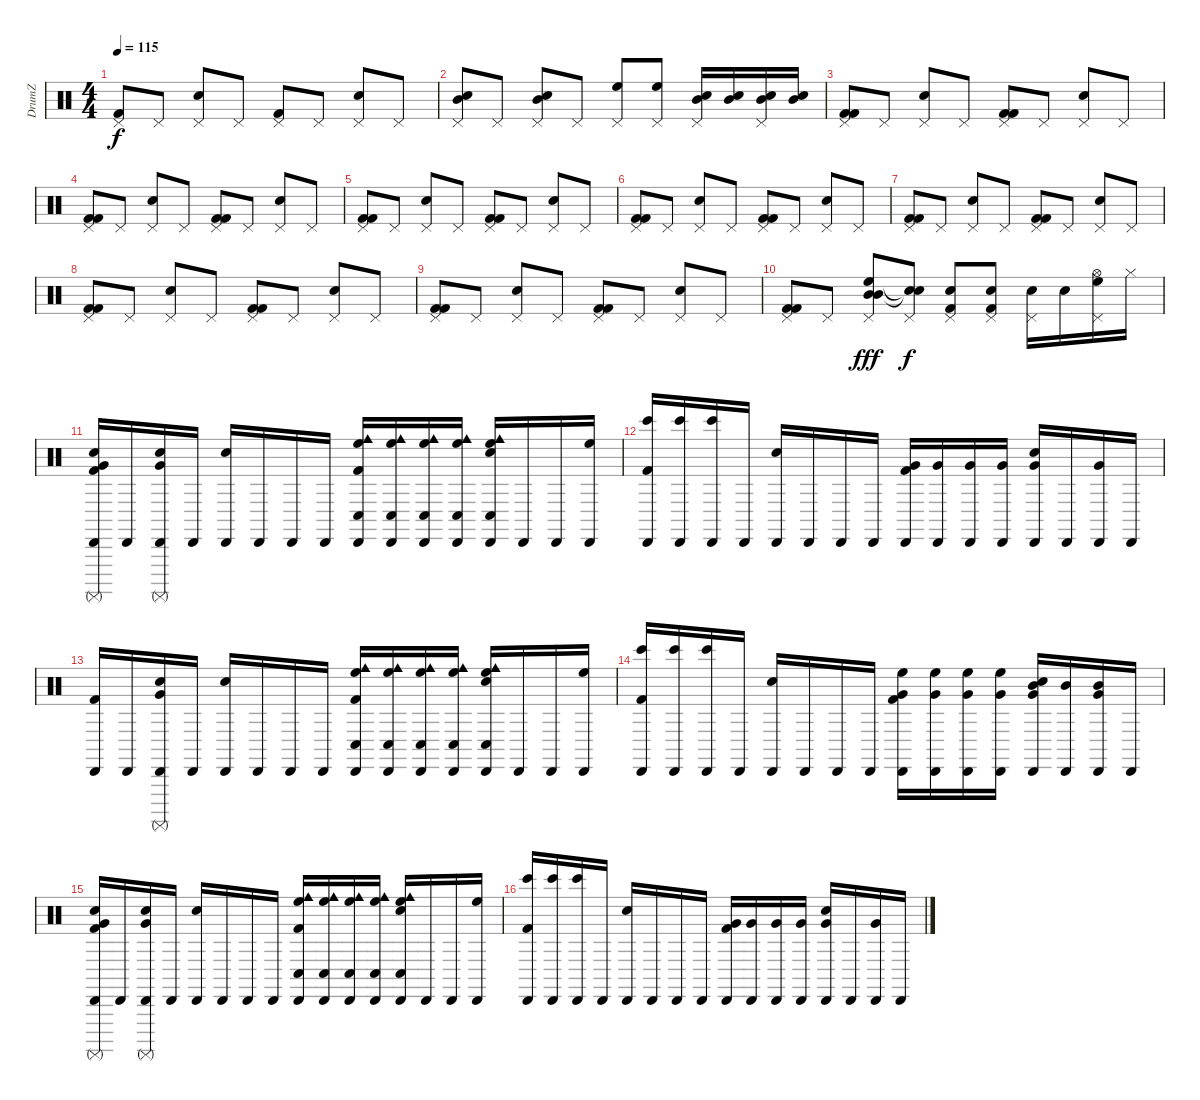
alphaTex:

\track ("DrumZ" "DrumZ") {instrument percussion}
\staff {score}
\articulation defaults
\ts (4 4)
\tempo 115
\clef neutral
\ks c
("Pedal Hi-Hat (hit)" "Kick (hit) 2").8{dy f} "Pedal Hi-Hat (hit)".8 ("Pedal Hi-Hat (hit)" "Electric Snare (hit)").8 "Pedal Hi-Hat (hit)".8 ("Pedal Hi-Hat (hit)" "Kick (hit) 2").8 "Pedal Hi-Hat (hit)".8 ("Pedal Hi-Hat (hit)" "Electric Snare (hit)").8 "Pedal Hi-Hat (hit)".8 |
("Pedal Hi-Hat (hit)" "Electric Snare (hit)" "Mid Tom (hit)").8 "Pedal Hi-Hat (hit)".8 ("Pedal Hi-Hat (hit)" "Electric Snare (hit)" "Mid Tom (hit)").8 "Pedal Hi-Hat (hit)".8 ("Pedal Hi-Hat (hit)" "High Floor Tom (hit)").8 ("Pedal Hi-Hat (hit)" "High Floor Tom (hit)").8 ("Pedal Hi-Hat (hit)" "Electric Snare (hit)" "Mid Tom (hit)").16 ("Electric Snare (hit)" "Mid Tom (hit)").16 ("Pedal Hi-Hat (hit)" "Electric Snare (hit)" "Mid Tom (hit)").16 ("Electric Snare (hit)" "Mid Tom (hit)").16 |
("Pedal Hi-Hat (hit)" "Kick (hit) 2" "Kick (hit) 2").8 "Pedal Hi-Hat (hit)".8 ("Pedal Hi-Hat (hit)" "Electric Snare (hit)").8 "Pedal Hi-Hat (hit)".8 ("Pedal Hi-Hat (hit)" "Kick (hit) 2" "Kick (hit) 2").8 "Pedal Hi-Hat (hit)".8 ("Pedal Hi-Hat (hit)" "Electric Snare (hit)").8 "Pedal Hi-Hat (hit)".8 |
("Pedal Hi-Hat (hit)" "Kick (hit) 2" "Kick (hit) 2").8 "Pedal Hi-Hat (hit)".8 ("Pedal Hi-Hat (hit)" "Electric Snare (hit)").8 "Pedal Hi-Hat (hit)".8 ("Pedal Hi-Hat (hit)" "Kick (hit) 2" "Kick (hit) 2").8 "Pedal Hi-Hat (hit)".8 ("Pedal Hi-Hat (hit)" "Electric Snare (hit)").8 "Pedal Hi-Hat (hit)".8 |
("Pedal Hi-Hat (hit)" "Kick (hit) 2" "Kick (hit) 2").8 "Pedal Hi-Hat (hit)".8 ("Pedal Hi-Hat (hit)" "Electric Snare (hit)").8 "Pedal Hi-Hat (hit)".8 ("Pedal Hi-Hat (hit)" "Kick (hit) 2" "Kick (hit) 2").8 "Pedal Hi-Hat (hit)".8 ("Pedal Hi-Hat (hit)" "Electric Snare (hit)").8 "Pedal Hi-Hat (hit)".8 |
("Pedal Hi-Hat (hit)" "Kick (hit) 2" "Kick (hit) 2").8 "Pedal Hi-Hat (hit)".8 ("Pedal Hi-Hat (hit)" "Electric Snare (hit)").8 "Pedal Hi-Hat (hit)".8 ("Pedal Hi-Hat (hit)" "Kick (hit) 2" "Kick (hit) 2").8 "Pedal Hi-Hat (hit)".8 ("Pedal Hi-Hat (hit)" "Electric Snare (hit)").8 "Pedal Hi-Hat (hit)".8 |
("Pedal Hi-Hat (hit)" "Kick (hit) 2" "Kick (hit) 2").8 "Pedal Hi-Hat (hit)".8 ("Pedal Hi-Hat (hit)" "Electric Snare (hit)").8 "Pedal Hi-Hat (hit)".8 ("Pedal Hi-Hat (hit)" "Kick (hit) 2" "Kick (hit) 2").8 "Pedal Hi-Hat (hit)".8 ("Pedal Hi-Hat (hit)" "Electric Snare (hit)").8 "Pedal Hi-Hat (hit)".8 |
("Pedal Hi-Hat (hit)" "Kick (hit) 2" "Kick (hit) 2").8 "Pedal Hi-Hat (hit)".8 ("Pedal Hi-Hat (hit)" "Electric Snare (hit)").8 "Pedal Hi-Hat (hit)".8 ("Pedal Hi-Hat (hit)" "Kick (hit) 2" "Kick (hit) 2").8 "Pedal Hi-Hat (hit)".8 ("Pedal Hi-Hat (hit)" "Electric Snare (hit)").8 "Pedal Hi-Hat (hit)".8 |
("Pedal Hi-Hat (hit)" "Kick (hit) 2" "Kick (hit) 2").8 "Pedal Hi-Hat (hit)".8 ("Pedal Hi-Hat (hit)" "Electric Snare (hit)").8 "Pedal Hi-Hat (hit)".8 ("Pedal Hi-Hat (hit)" "Kick (hit) 2" "Kick (hit) 2").8 "Pedal Hi-Hat (hit)".8 ("Pedal Hi-Hat (hit)" "Electric Snare (hit)").8 "Pedal Hi-Hat (hit)".8 |
("Pedal Hi-Hat (hit)" "Kick (hit) 2" "Kick (hit) 2").8 "Pedal Hi-Hat (hit)".8 ("Pedal Hi-Hat (hit)" "High Floor Tom (hit)" "Mid Tom (hit)" "Mid Tom (hit)").8{dy fff} ("Pedal Hi-Hat (hit)" "Snare (hit)"{t} "Snare (hit)"{t}).8{dy f} ("Pedal Hi-Hat (hit)" "Snare (hit) 2" "Kick (hit) 2").8 ("Pedal Hi-Hat (hit)" "Snare (hit) 2" "Kick (hit) 2").8 ("Pedal Hi-Hat (hit)" "Electric Snare (hit)").16 "Electric Snare (hit)".16 ("Pedal Hi-Hat (hit)" "Hi-Hat (open)" "High Floor Tom (hit)").16 "Hi-Hat (closed)".16 |
("Cabasa (hit)" "Very Low Tom (hit)" "Snare (hit) 2" "Surdo (mute)" "Kick (hit) 2").16 "Cabasa (hit)".16 ("Cabasa (hit)" "Very Low Tom (hit)" "Snare (hit) 2" "Surdo (mute)").16 "Cabasa (hit)".16 ("Cabasa (hit)" "Electric Snare (hit)").16 "Cabasa (hit)".16 "Cabasa (hit)".16 "Cabasa (hit)".16 ("Cabasa (hit)" "Cowbell medium (hit)" "Conga low (hit)" "High Floor Tom (hit)" "Kick (hit) 2").16 ("Cabasa (hit)" "Cowbell medium (hit)" "Conga low (hit)" "High Floor Tom (hit)").16 ("Cabasa (hit)" "Cowbell medium (hit)" "Conga low (hit)" "High Floor Tom (hit)").16 ("Cabasa (hit)" "Cowbell medium (hit)" "Conga low (hit)" "High Floor Tom (hit)").16 ("Cabasa (hit)" "Cowbell medium (hit)" "Conga low (hit)" "High Floor Tom (hit)" "Electric Snare (hit)").16 "Cabasa (hit)".16 "Cabasa (hit)".16 ("Cabasa (hit)" "High Floor Tom (hit)").16 |
("Cabasa (hit)" "Bongo High (hit)" "Kick (hit) 2").16 ("Cabasa (hit)" "Bongo High (hit)").16 ("Cabasa (hit)" "Bongo High (hit)").16 "Cabasa (hit)".16 ("Cabasa (hit)" "Electric Snare (hit)").16 "Cabasa (hit)".16 "Cabasa (hit)".16 "Cabasa (hit)".16 ("Cabasa (hit)" "Very Low Tom (hit)" "Kick (hit) 2").16 ("Cabasa (hit)" "Very Low Tom (hit)").16 ("Cabasa (hit)" "Very Low Tom (hit)").16 ("Cabasa (hit)" "Very Low Tom (hit)").16 ("Cabasa (hit)" "Very Low Tom (hit)" "Electric Snare (hit)").16 "Cabasa (hit)".16 ("Cabasa (hit)" "Very Low Tom (hit)").16 "Cabasa (hit)".16 |
("Cabasa (hit)" "Kick (hit) 2").16 "Cabasa (hit)".16 ("Cabasa (hit)" "Very Low Tom (hit)" "Snare (hit) 2" "Surdo (mute)").16 "Cabasa (hit)".16 ("Cabasa (hit)" "Electric Snare (hit)").16 "Cabasa (hit)".16 "Cabasa (hit)".16 "Cabasa (hit)".16 ("Cabasa (hit)" "Cowbell medium (hit)" "Conga low (hit)" "High Floor Tom (hit)" "Kick (hit) 2").16 ("Cabasa (hit)" "Cowbell medium (hit)" "Conga low (hit)" "High Floor Tom (hit)").16 ("Cabasa (hit)" "Cowbell medium (hit)" "Conga low (hit)" "High Floor Tom (hit)").16 ("Cabasa (hit)" "Cowbell medium (hit)" "Conga low (hit)" "High Floor Tom (hit)").16 ("Cabasa (hit)" "Cowbell medium (hit)" "Conga low (hit)" "High Floor Tom (hit)" "Electric Snare (hit)").16 "Cabasa (hit)".16 "Cabasa (hit)".16 ("Cabasa (hit)" "High Floor Tom (hit)").16 |
("Cabasa (hit)" "Bongo High (hit)" "Kick (hit) 2").16 ("Cabasa (hit)" "Bongo High (hit)").16 ("Cabasa (hit)" "Bongo High (hit)").16 "Cabasa (hit)".16 ("Cabasa (hit)" "Electric Snare (hit)").16 "Cabasa (hit)".16 "Cabasa (hit)".16 "Cabasa (hit)".16 ("Cabasa (hit)" "High Floor Tom (hit)" "Very Low Tom (hit)" "Kick (hit) 2").16 ("Cabasa (hit)" "High Floor Tom (hit)" "Very Low Tom (hit)").16 ("Cabasa (hit)" "High Floor Tom (hit)" "Very Low Tom (hit)").16 ("Cabasa (hit)" "High Floor Tom (hit)" "Very Low Tom (hit)").16 ("Cabasa (hit)" "Mid Tom (hit)" "Very Low Tom (hit)" "Electric Snare (hit)").16 ("Cabasa (hit)" "Mid Tom (hit)").16 ("Cabasa (hit)" "Mid Tom (hit)" "Very Low Tom (hit)").16 "Cabasa (hit)".16 |
("Cabasa (hit)" "Very Low Tom (hit)" "Snare (hit) 2" "Surdo (mute)" "Kick (hit) 2").16 "Cabasa (hit)".16 ("Cabasa (hit)" "Very Low Tom (hit)" "Snare (hit) 2" "Surdo (mute)").16 "Cabasa (hit)".16 ("Cabasa (hit)" "Electric Snare (hit)").16 "Cabasa (hit)".16 "Cabasa (hit)".16 "Cabasa (hit)".16 ("Cabasa (hit)" "Cowbell medium (hit)" "Conga low (hit)" "High Floor Tom (hit)" "Kick (hit) 2").16 ("Cabasa (hit)" "Cowbell medium (hit)" "Conga low (hit)" "High Floor Tom (hit)").16 ("Cabasa (hit)" "Cowbell medium (hit)" "Conga low (hit)" "High Floor Tom (hit)").16 ("Cabasa (hit)" "Cowbell medium (hit)" "Conga low (hit)" "High Floor Tom (hit)").16 ("Cabasa (hit)" "Cowbell medium (hit)" "Conga low (hit)" "High Floor Tom (hit)" "Electric Snare (hit)").16 "Cabasa (hit)".16 "Cabasa (hit)".16 ("Cabasa (hit)" "High Floor Tom (hit)").16 |
("Cabasa (hit)" "Bongo High (hit)" "Kick (hit) 2").16 ("Cabasa (hit)" "Bongo High (hit)").16 ("Cabasa (hit)" "Bongo High (hit)").16 "Cabasa (hit)".16 ("Cabasa (hit)" "Electric Snare (hit)").16 "Cabasa (hit)".16 "Cabasa (hit)".16 "Cabasa (hit)".16 ("Cabasa (hit)" "Very Low Tom (hit)" "Kick (hit) 2").16 ("Cabasa (hit)" "Very Low Tom (hit)").16 ("Cabasa (hit)" "Very Low Tom (hit)").16 ("Cabasa (hit)" "Very Low Tom (hit)").16 ("Cabasa (hit)" "Very Low Tom (hit)" "Electric Snare (hit)").16 "Cabasa (hit)".16 ("Cabasa (hit)" "Very Low Tom (hit)").16 "Cabasa (hit)".16
